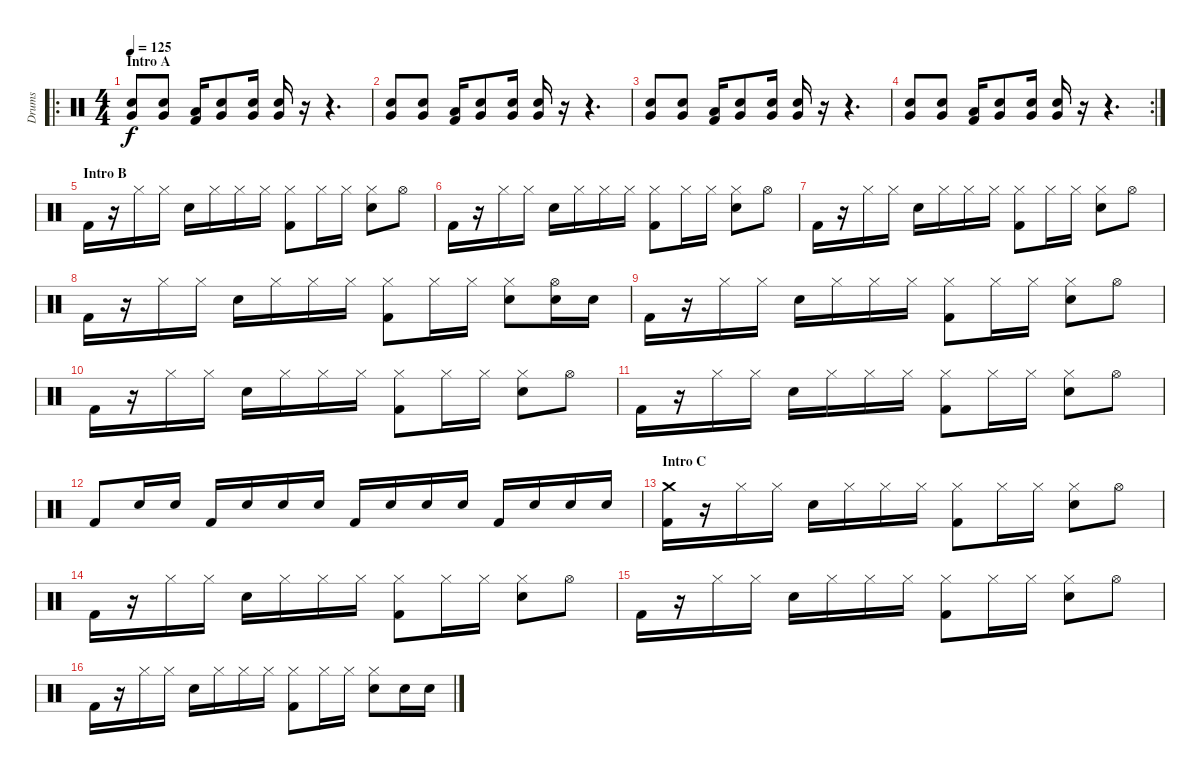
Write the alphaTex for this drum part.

\track ("Drums" "Drums") {instrument percussion}
\staff {score}
\articulation defaults
\ro
\ts (4 4)
\section ("" "Intro A")
\tempo 125
\clef neutral
\ks c
("Very Low Tom (hit)" "Electric Snare (hit)").8{dy f} ("Very Low Tom (hit)" "Electric Snare (hit)").8 ("Low Floor Tom (hit)" "Kick (hit) 2").16 ("Very Low Tom (hit)" "Electric Snare (hit)").8 ("Very Low Tom (hit)" "Electric Snare (hit)").16 ("Very Low Tom (hit)" "Electric Snare (hit)").16 r.16 r.4{d} |
("Very Low Tom (hit)" "Electric Snare (hit)").8 ("Very Low Tom (hit)" "Electric Snare (hit)").8 ("Low Floor Tom (hit)" "Kick (hit) 2").16 ("Very Low Tom (hit)" "Electric Snare (hit)").8 ("Very Low Tom (hit)" "Electric Snare (hit)").16 ("Very Low Tom (hit)" "Electric Snare (hit)").16 r.16 r.4{d} |
("Very Low Tom (hit)" "Electric Snare (hit)").8 ("Very Low Tom (hit)" "Electric Snare (hit)").8 ("Low Floor Tom (hit)" "Kick (hit) 2").16 ("Very Low Tom (hit)" "Electric Snare (hit)").8 ("Very Low Tom (hit)" "Electric Snare (hit)").16 ("Very Low Tom (hit)" "Electric Snare (hit)").16 r.16 r.4{d} |
\rc 2
("Very Low Tom (hit)" "Electric Snare (hit)").8 ("Very Low Tom (hit)" "Electric Snare (hit)").8 ("Low Floor Tom (hit)" "Kick (hit) 2").16 ("Very Low Tom (hit)" "Electric Snare (hit)").8 ("Very Low Tom (hit)" "Electric Snare (hit)").16 ("Very Low Tom (hit)" "Electric Snare (hit)").16 r.16 r.4{d} |
\section ("" "Intro B")
"Kick (hit) 2".16 r.16 "Hi-Hat (closed)".16 "Hi-Hat (closed)".16 "Electric Snare (hit)".16 "Hi-Hat (closed)".16 "Hi-Hat (closed)".16 "Hi-Hat (closed)".16 ("Hi-Hat (closed)" "Kick (hit) 2").8 "Hi-Hat (closed)".16 "Hi-Hat (closed)".16 ("Hi-Hat (closed)" "Electric Snare (hit)").8 "Hi-Hat (open)".8 |
"Kick (hit) 2".16 r.16 "Hi-Hat (closed)".16 "Hi-Hat (closed)".16 "Electric Snare (hit)".16 "Hi-Hat (closed)".16 "Hi-Hat (closed)".16 "Hi-Hat (closed)".16 ("Hi-Hat (closed)" "Kick (hit) 2").8 "Hi-Hat (closed)".16 "Hi-Hat (closed)".16 ("Hi-Hat (closed)" "Electric Snare (hit)").8 "Hi-Hat (open)".8 |
"Kick (hit) 2".16 r.16 "Hi-Hat (closed)".16 "Hi-Hat (closed)".16 "Electric Snare (hit)".16 "Hi-Hat (closed)".16 "Hi-Hat (closed)".16 "Hi-Hat (closed)".16 ("Hi-Hat (closed)" "Kick (hit) 2").8 "Hi-Hat (closed)".16 "Hi-Hat (closed)".16 ("Hi-Hat (closed)" "Electric Snare (hit)").8 "Hi-Hat (open)".8 |
"Kick (hit) 2".16 r.16 "Hi-Hat (closed)".16 "Hi-Hat (closed)".16 "Electric Snare (hit)".16 "Hi-Hat (closed)".16 "Hi-Hat (closed)".16 "Hi-Hat (closed)".16 ("Hi-Hat (closed)" "Kick (hit) 2").8 "Hi-Hat (closed)".16 "Hi-Hat (closed)".16 ("Hi-Hat (closed)" "Electric Snare (hit)").8 ("Hi-Hat (open)" "Electric Snare (hit)").16 "Electric Snare (hit)".16 |
"Kick (hit) 2".16 r.16 "Hi-Hat (closed)".16 "Hi-Hat (closed)".16 "Electric Snare (hit)".16 "Hi-Hat (closed)".16 "Hi-Hat (closed)".16 "Hi-Hat (closed)".16 ("Hi-Hat (closed)" "Kick (hit) 2").8 "Hi-Hat (closed)".16 "Hi-Hat (closed)".16 ("Hi-Hat (closed)" "Electric Snare (hit)").8 "Hi-Hat (open)".8 |
"Kick (hit) 2".16 r.16 "Hi-Hat (closed)".16 "Hi-Hat (closed)".16 "Electric Snare (hit)".16 "Hi-Hat (closed)".16 "Hi-Hat (closed)".16 "Hi-Hat (closed)".16 ("Hi-Hat (closed)" "Kick (hit) 2").8 "Hi-Hat (closed)".16 "Hi-Hat (closed)".16 ("Hi-Hat (closed)" "Electric Snare (hit)").8 "Hi-Hat (open)".8 |
"Kick (hit) 2".16 r.16 "Hi-Hat (closed)".16 "Hi-Hat (closed)".16 "Electric Snare (hit)".16 "Hi-Hat (closed)".16 "Hi-Hat (closed)".16 "Hi-Hat (closed)".16 ("Hi-Hat (closed)" "Kick (hit) 2").8 "Hi-Hat (closed)".16 "Hi-Hat (closed)".16 ("Hi-Hat (closed)" "Electric Snare (hit)").8 "Hi-Hat (open)".8 |
"Kick (hit) 2".8 "Electric Snare (hit)".16 "Electric Snare (hit)".16 "Kick (hit) 2".16 "Electric Snare (hit)".16 "Electric Snare (hit)".16 "Electric Snare (hit)".16 "Kick (hit) 2".16 "Electric Snare (hit)".16 "Electric Snare (hit)".16 "Electric Snare (hit)".16 "Kick (hit) 2".16 "Electric Snare (hit)".16 "Electric Snare (hit)".16 "Electric Snare (hit)".16 |
\section ("" "Intro C")
("Crash medium (hit)" "Kick (hit) 2").16 r.16 "Hi-Hat (closed)".16 "Hi-Hat (closed)".16 "Electric Snare (hit)".16 "Hi-Hat (closed)".16 "Hi-Hat (closed)".16 "Hi-Hat (closed)".16 ("Hi-Hat (closed)" "Kick (hit) 2").8 "Hi-Hat (closed)".16 "Hi-Hat (closed)".16 ("Hi-Hat (closed)" "Electric Snare (hit)").8 "Hi-Hat (open)".8 |
"Kick (hit) 2".16 r.16 "Hi-Hat (closed)".16 "Hi-Hat (closed)".16 "Electric Snare (hit)".16 "Hi-Hat (closed)".16 "Hi-Hat (closed)".16 "Hi-Hat (closed)".16 ("Hi-Hat (closed)" "Kick (hit) 2").8 "Hi-Hat (closed)".16 "Hi-Hat (closed)".16 ("Hi-Hat (closed)" "Electric Snare (hit)").8 "Hi-Hat (open)".8 |
"Kick (hit) 2".16 r.16 "Hi-Hat (closed)".16 "Hi-Hat (closed)".16 "Electric Snare (hit)".16 "Hi-Hat (closed)".16 "Hi-Hat (closed)".16 "Hi-Hat (closed)".16 ("Hi-Hat (closed)" "Kick (hit) 2").8 "Hi-Hat (closed)".16 "Hi-Hat (closed)".16 ("Hi-Hat (closed)" "Electric Snare (hit)").8 "Hi-Hat (open)".8 |
"Kick (hit) 2".16 r.16 "Hi-Hat (closed)".16 "Hi-Hat (closed)".16 "Electric Snare (hit)".16 "Hi-Hat (closed)".16 "Hi-Hat (closed)".16 "Hi-Hat (closed)".16 ("Hi-Hat (closed)" "Kick (hit) 2").8 "Hi-Hat (closed)".16 "Hi-Hat (closed)".16 ("Hi-Hat (closed)" "Electric Snare (hit)").8 "Electric Snare (hit)".16 "Electric Snare (hit)".16
